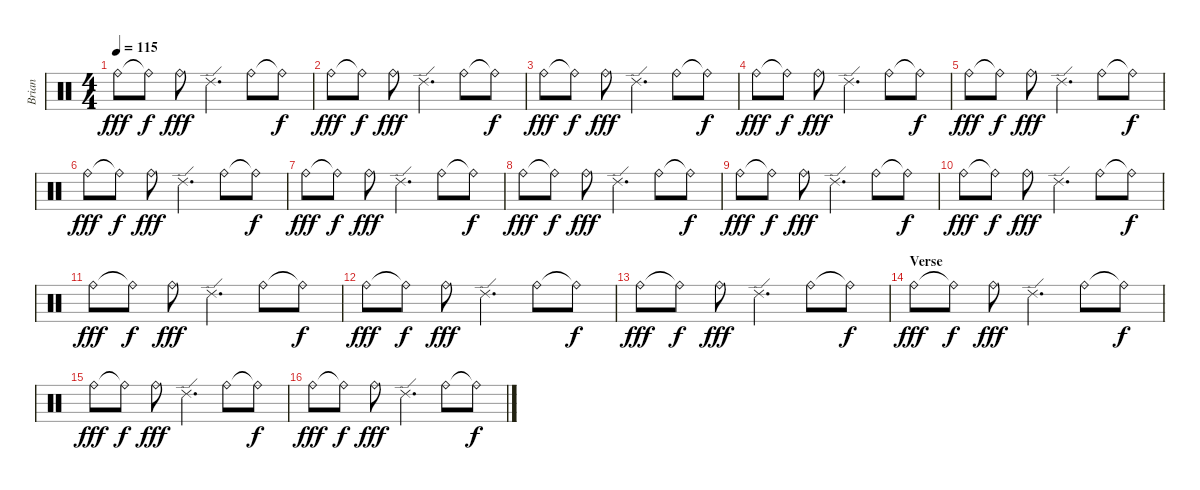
\track ("Brian" "Brian") {instrument percussion}
\staff {score}
\articulation defaults
\ts (4 4)
\tempo 115
\clef neutral
\ks c "Ride (bell)".8{dy fff} "Ride (bell)"{t}.8{dy f} "Ride (bell)".8{dy fff} "Ride (edge) 2".4{d} "Ride (bell)".8 "Ride (bell)"{t}.8{dy f}
|
"Ride (bell)".8{dy fff} "Ride (bell)"{t}.8{dy f} "Ride (bell)".8{dy fff} "Ride (edge) 2".4{d} "Ride (bell)".8 "Ride (bell)"{t}.8{dy f} |
"Ride (bell)".8{dy fff} "Ride (bell)"{t}.8{dy f} "Ride (bell)".8{dy fff} "Ride (edge) 2".4{d} "Ride (bell)".8 "Ride (bell)"{t}.8{dy f} |
"Ride (bell)".8{dy fff} "Ride (bell)"{t}.8{dy f} "Ride (bell)".8{dy fff} "Ride (edge) 2".4{d} "Ride (bell)".8 "Ride (bell)"{t}.8{dy f} |
"Ride (bell)".8{dy fff} "Ride (bell)"{t}.8{dy f} "Ride (bell)".8{dy fff} "Ride (edge) 2".4{d} "Ride (bell)".8 "Ride (bell)"{t}.8{dy f} |
"Ride (bell)".8{dy fff} "Ride (bell)"{t}.8{dy f} "Ride (bell)".8{dy fff} "Ride (edge) 2".4{d} "Ride (bell)".8 "Ride (bell)"{t}.8{dy f} |
"Ride (bell)".8{dy fff} "Ride (bell)"{t}.8{dy f} "Ride (bell)".8{dy fff} "Ride (edge) 2".4{d} "Ride (bell)".8 "Ride (bell)"{t}.8{dy f} |
"Ride (bell)".8{dy fff} "Ride (bell)"{t}.8{dy f} "Ride (bell)".8{dy fff} "Ride (edge) 2".4{d} "Ride (bell)".8 "Ride (bell)"{t}.8{dy f} |
"Ride (bell)".8{dy fff} "Ride (bell)"{t}.8{dy f} "Ride (bell)".8{dy fff} "Ride (edge) 2".4{d} "Ride (bell)".8 "Ride (bell)"{t}.8{dy f} |
"Ride (bell)".8{dy fff} "Ride (bell)"{t}.8{dy f} "Ride (bell)".8{dy fff} "Ride (edge) 2".4{d} "Ride (bell)".8 "Ride (bell)"{t}.8{dy f} |
"Ride (bell)".8{dy fff} "Ride (bell)"{t}.8{dy f} "Ride (bell)".8{dy fff} "Ride (edge) 2".4{d} "Ride (bell)".8 "Ride (bell)"{t}.8{dy f} |
"Ride (bell)".8{dy fff} "Ride (bell)"{t}.8{dy f} "Ride (bell)".8{dy fff} "Ride (edge) 2".4{d} "Ride (bell)".8 "Ride (bell)"{t}.8{dy f} |
"Ride (bell)".8{dy fff} "Ride (bell)"{t}.8{dy f} "Ride (bell)".8{dy fff} "Ride (edge) 2".4{d} "Ride (bell)".8 "Ride (bell)"{t}.8{dy f} |
\section ("" "Verse")
"Ride (bell)".8{dy fff} "Ride (bell)"{t}.8{dy f} "Ride (bell)".8{dy fff} "Ride (edge) 2".4{d} "Ride (bell)".8 "Ride (bell)"{t}.8{dy f} |
"Ride (bell)".8{dy fff} "Ride (bell)"{t}.8{dy f} "Ride (bell)".8{dy fff} "Ride (edge) 2".4{d} "Ride (bell)".8 "Ride (bell)"{t}.8{dy f} |
"Ride (bell)".8{dy fff} "Ride (bell)"{t}.8{dy f} "Ride (bell)".8{dy fff} "Ride (edge) 2".4{d} "Ride (bell)".8 "Ride (bell)"{t}.8{dy f}
